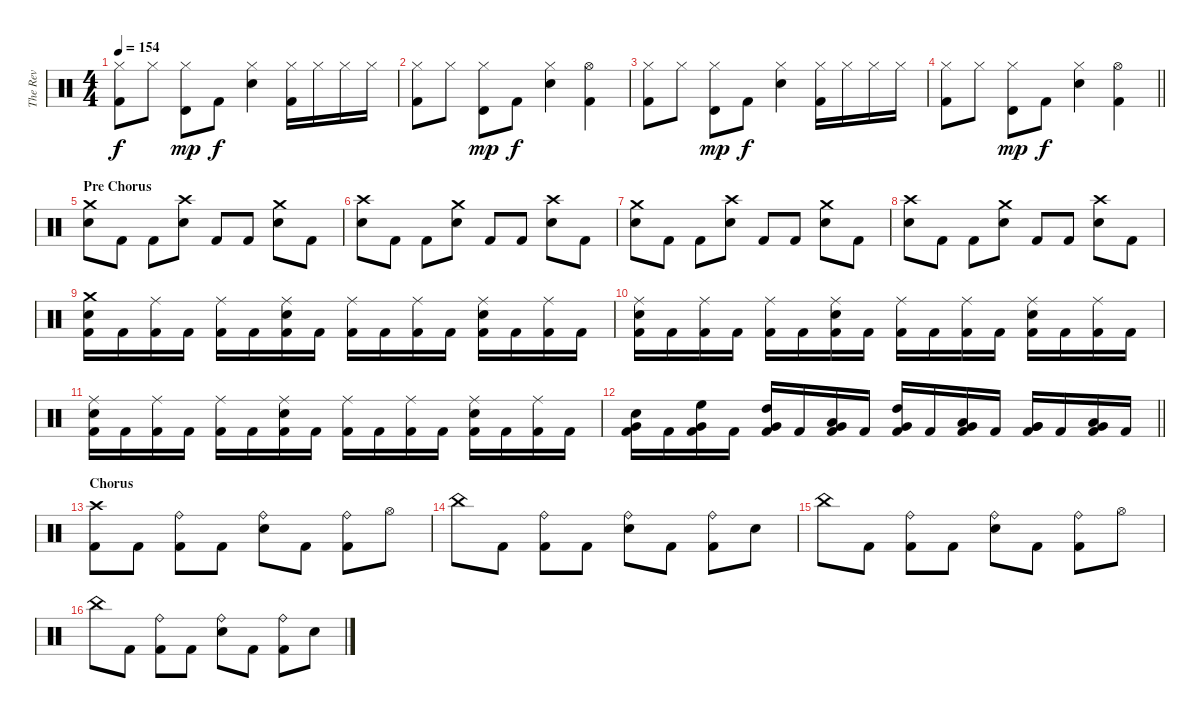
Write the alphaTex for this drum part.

\track ("The Rev" "The Rev") {instrument percussion}
\staff {score}
\articulation defaults
\ts (4 4)
\tempo 154
\clef neutral
\ks c
("Hi-Hat (closed)" "Kick (hit) 2").8{dy f} "Hi-Hat (closed)".8 ("Hi-Hat (closed)" "Timbale high (hit)").8{dy mp} "Kick (hit) 2".8{dy f} ("Hi-Hat (closed)" "Snare (hit) 2").4 ("Hi-Hat (closed)" "Kick (hit) 2").16 "Hi-Hat (closed)".16 "Hi-Hat (closed)".16 "Hi-Hat (closed)".16 |
("Hi-Hat (closed)" "Kick (hit) 2").8 "Hi-Hat (closed)".8 ("Hi-Hat (closed)" "Timbale high (hit)").8{dy mp} "Kick (hit) 2".8{dy f} ("Hi-Hat (closed)" "Snare (hit) 2").4 ("Hi-Hat (open)" "Kick (hit) 2").4 |
("Hi-Hat (closed)" "Kick (hit) 2").8 "Hi-Hat (closed)".8 ("Hi-Hat (closed)" "Timbale high (hit)").8{dy mp} "Kick (hit) 2".8{dy f} ("Hi-Hat (closed)" "Snare (hit) 2").4 ("Hi-Hat (closed)" "Kick (hit) 2").16 "Hi-Hat (closed)".16 "Hi-Hat (closed)".16 "Hi-Hat (closed)".16 |
\barLineRight lightlight
("Hi-Hat (closed)" "Kick (hit) 2").8 "Hi-Hat (closed)".8 ("Hi-Hat (closed)" "Timbale high (hit)").8{dy mp} "Kick (hit) 2".8{dy f} ("Hi-Hat (closed)" "Snare (hit) 2").4 ("Hi-Hat (open)" "Kick (hit) 2").4 |
\section ("" "Pre Chorus")
("Crash medium (hit)" "Snare (hit) 2").8 "Kick (hit) 2".8 "Kick (hit) 2".8 ("Crash high (hit)" "Snare (hit) 2").8 "Kick (hit) 2".8 "Kick (hit) 2".8 ("Crash medium (hit)" "Snare (hit) 2").8 "Kick (hit) 2".8 |
("Crash high (hit)" "Snare (hit) 2").8 "Kick (hit) 2".8 "Kick (hit) 2".8 ("Crash medium (hit)" "Snare (hit) 2").8 "Kick (hit) 2".8 "Kick (hit) 2".8 ("Crash high (hit)" "Snare (hit) 2").8 "Kick (hit) 2".8 |
("Crash medium (hit)" "Snare (hit) 2").8 "Kick (hit) 2".8 "Kick (hit) 2".8 ("Crash high (hit)" "Snare (hit) 2").8 "Kick (hit) 2".8 "Kick (hit) 2".8 ("Crash medium (hit)" "Snare (hit) 2").8 "Kick (hit) 2".8 |
("Crash high (hit)" "Snare (hit) 2").8 "Kick (hit) 2".8 "Kick (hit) 2".8 ("Crash medium (hit)" "Snare (hit) 2").8 "Kick (hit) 2".8 "Kick (hit) 2".8 ("Crash high (hit)" "Snare (hit) 2").8 "Kick (hit) 2".8 |
("Crash medium (hit)" "Snare (hit) 2" "Kick (hit) 2").16 "Kick (hit) 2".16 ("Ride (middle)" "Kick (hit) 2").16 "Kick (hit) 2".16 ("Ride (middle)" "Kick (hit) 2").16 "Kick (hit) 2".16 ("Ride (middle)" "Snare (hit) 2" "Kick (hit) 2").16 "Kick (hit) 2".16 ("Ride (middle)" "Kick (hit) 2").16 "Kick (hit) 2".16 ("Ride (middle)" "Kick (hit) 2").16 "Kick (hit) 2".16 ("Ride (middle)" "Snare (hit) 2" "Kick (hit) 2").16 "Kick (hit) 2".16 ("Ride (middle)" "Kick (hit) 2").16 "Kick (hit) 2".16 |
("Ride (middle)" "Snare (hit) 2" "Kick (hit) 2").16 "Kick (hit) 2".16 ("Ride (middle)" "Kick (hit) 2").16 "Kick (hit) 2".16 ("Ride (middle)" "Kick (hit) 2").16 "Kick (hit) 2".16 ("Ride (middle)" "Snare (hit) 2" "Kick (hit) 2").16 "Kick (hit) 2".16 ("Ride (middle)" "Kick (hit) 2").16 "Kick (hit) 2".16 ("Ride (middle)" "Kick (hit) 2").16 "Kick (hit) 2".16 ("Ride (middle)" "Snare (hit) 2" "Kick (hit) 2").16 "Kick (hit) 2".16 ("Ride (middle)" "Kick (hit) 2").16 "Kick (hit) 2".16 |
("Ride (middle)" "Snare (hit) 2" "Kick (hit) 2").16 "Kick (hit) 2".16 ("Ride (middle)" "Kick (hit) 2").16 "Kick (hit) 2".16 ("Ride (middle)" "Kick (hit) 2").16 "Kick (hit) 2".16 ("Ride (middle)" "Snare (hit) 2" "Kick (hit) 2").16 "Kick (hit) 2".16 ("Ride (middle)" "Kick (hit) 2").16 "Kick (hit) 2".16 ("Ride (middle)" "Kick (hit) 2").16 "Kick (hit) 2".16 ("Ride (middle)" "Snare (hit) 2" "Kick (hit) 2").16 "Kick (hit) 2".16 ("Ride (middle)" "Kick (hit) 2").16 "Kick (hit) 2".16 |
\barLineRight lightlight
("Snare (hit) 2" "Very Low Tom (hit)" "Kick (hit) 2").16 "Kick (hit) 2".16 ("High Floor Tom (hit)" "Very Low Tom (hit)" "Kick (hit) 2").16 "Kick (hit) 2".16 ("High Tom (hit)" "Very Low Tom (hit)" "Kick (hit) 2").16 "Kick (hit) 2".16 ("Low Tom (hit)" "Very Low Tom (hit)" "Kick (hit) 2").16 "Kick (hit) 2".16 ("High Tom (hit)" "Very Low Tom (hit)" "Kick (hit) 2").16 "Kick (hit) 2".16 ("Low Tom (hit)" "Very Low Tom (hit)" "Kick (hit) 2").16 "Kick (hit) 2".16 ("Very Low Tom (hit)" "Very Low Tom (hit)" "Kick (hit) 2").16 "Kick (hit) 2".16 ("Low Floor Tom (hit)" "Very Low Tom (hit)" "Kick (hit) 2").16 "Kick (hit) 2".16 |
\section ("" "Chorus")
("Crash high (hit)" "Kick (hit) 2").8 "Kick (hit) 2".8 ("Ride (bell)" "Kick (hit) 2").8 "Kick (hit) 2".8 ("Ride (bell)" "Snare (hit) 2").8 "Kick (hit) 2".8 ("Ride (bell)" "Kick (hit) 2").8 "Hi-Hat (open)".8 |
"China (hit)".8 "Kick (hit) 2".8 ("Ride (bell)" "Kick (hit) 2").8 "Kick (hit) 2".8 ("Ride (bell)" "Snare (hit) 2").8 "Kick (hit) 2".8 ("Ride (bell)" "Kick (hit) 2").8 "Snare (hit) 2".8 |
"China (hit)".8 "Kick (hit) 2".8 ("Ride (bell)" "Kick (hit) 2").8 "Kick (hit) 2".8 ("Ride (bell)" "Snare (hit) 2").8 "Kick (hit) 2".8 ("Ride (bell)" "Kick (hit) 2").8 "Hi-Hat (open)".8 |
"China (hit)".8 "Kick (hit) 2".8 ("Ride (bell)" "Kick (hit) 2").8 "Kick (hit) 2".8 ("Ride (bell)" "Snare (hit) 2").8 "Kick (hit) 2".8 ("Ride (bell)" "Kick (hit) 2").8 "Snare (hit) 2".8
